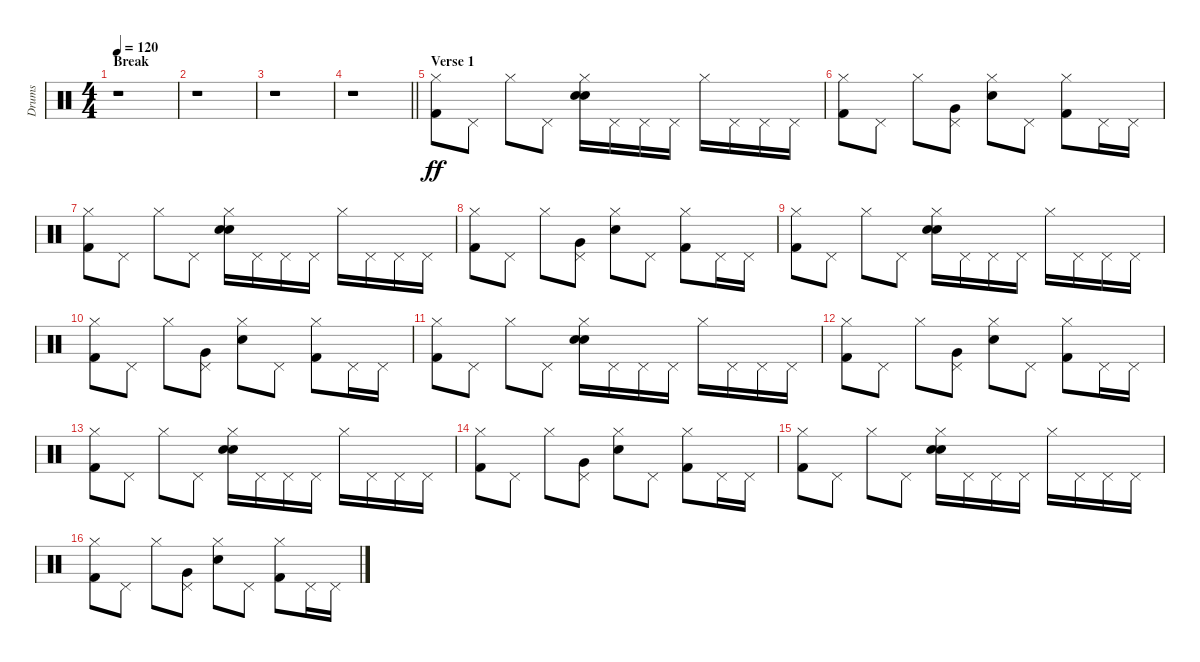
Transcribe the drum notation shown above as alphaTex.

\track ("Drums" "Drums") {instrument percussion}
\staff {score}
\articulation defaults
\ts (4 4)
\section ("" "Break")
\tempo 120
\clef neutral
\ks c
r.1{dy ff} |
r.1 |
r.1 |
\barLineRight lightlight
r.1 |
\section ("" "Verse 1")
("Kick (hit) 2" "Hi-Hat (closed)").8 "Pedal Hi-Hat (hit)".8 "Hi-Hat (closed)".8 "Pedal Hi-Hat (hit)".8 ("Electric Snare (hit)" "Electric Snare (hit)" "Hi-Hat (closed)").16 "Pedal Hi-Hat (hit)".16 "Pedal Hi-Hat (hit)".16 "Pedal Hi-Hat (hit)".16 "Hi-Hat (closed)".16 "Pedal Hi-Hat (hit)".16 "Pedal Hi-Hat (hit)".16 "Pedal Hi-Hat (hit)".16 |
("Kick (hit) 2" "Hi-Hat (closed)").8 "Pedal Hi-Hat (hit)".8 "Hi-Hat (closed)".8 ("Very Low Tom (hit)" "Pedal Hi-Hat (hit)").8 ("Electric Snare (hit)" "Hi-Hat (closed)").8 "Pedal Hi-Hat (hit)".8 ("Kick (hit) 2" "Hi-Hat (closed)").8 "Pedal Hi-Hat (hit)".16 "Pedal Hi-Hat (hit)".16 |
("Kick (hit) 2" "Hi-Hat (closed)").8 "Pedal Hi-Hat (hit)".8 "Hi-Hat (closed)".8 "Pedal Hi-Hat (hit)".8 ("Electric Snare (hit)" "Electric Snare (hit)" "Hi-Hat (closed)").16 "Pedal Hi-Hat (hit)".16 "Pedal Hi-Hat (hit)".16 "Pedal Hi-Hat (hit)".16 "Hi-Hat (closed)".16 "Pedal Hi-Hat (hit)".16 "Pedal Hi-Hat (hit)".16 "Pedal Hi-Hat (hit)".16 |
("Kick (hit) 2" "Hi-Hat (closed)").8 "Pedal Hi-Hat (hit)".8 "Hi-Hat (closed)".8 ("Very Low Tom (hit)" "Pedal Hi-Hat (hit)").8 ("Electric Snare (hit)" "Hi-Hat (closed)").8 "Pedal Hi-Hat (hit)".8 ("Kick (hit) 2" "Hi-Hat (closed)").8 "Pedal Hi-Hat (hit)".16 "Pedal Hi-Hat (hit)".16 |
("Kick (hit) 2" "Hi-Hat (closed)").8 "Pedal Hi-Hat (hit)".8 "Hi-Hat (closed)".8 "Pedal Hi-Hat (hit)".8 ("Electric Snare (hit)" "Electric Snare (hit)" "Hi-Hat (closed)").16 "Pedal Hi-Hat (hit)".16 "Pedal Hi-Hat (hit)".16 "Pedal Hi-Hat (hit)".16 "Hi-Hat (closed)".16 "Pedal Hi-Hat (hit)".16 "Pedal Hi-Hat (hit)".16 "Pedal Hi-Hat (hit)".16 |
("Kick (hit) 2" "Hi-Hat (closed)").8 "Pedal Hi-Hat (hit)".8 "Hi-Hat (closed)".8 ("Very Low Tom (hit)" "Pedal Hi-Hat (hit)").8 ("Electric Snare (hit)" "Hi-Hat (closed)").8 "Pedal Hi-Hat (hit)".8 ("Kick (hit) 2" "Hi-Hat (closed)").8 "Pedal Hi-Hat (hit)".16 "Pedal Hi-Hat (hit)".16 |
("Kick (hit) 2" "Hi-Hat (closed)").8 "Pedal Hi-Hat (hit)".8 "Hi-Hat (closed)".8 "Pedal Hi-Hat (hit)".8 ("Electric Snare (hit)" "Electric Snare (hit)" "Hi-Hat (closed)").16 "Pedal Hi-Hat (hit)".16 "Pedal Hi-Hat (hit)".16 "Pedal Hi-Hat (hit)".16 "Hi-Hat (closed)".16 "Pedal Hi-Hat (hit)".16 "Pedal Hi-Hat (hit)".16 "Pedal Hi-Hat (hit)".16 |
("Kick (hit) 2" "Hi-Hat (closed)").8 "Pedal Hi-Hat (hit)".8 "Hi-Hat (closed)".8 ("Very Low Tom (hit)" "Pedal Hi-Hat (hit)").8 ("Electric Snare (hit)" "Hi-Hat (closed)").8 "Pedal Hi-Hat (hit)".8 ("Kick (hit) 2" "Hi-Hat (closed)").8 "Pedal Hi-Hat (hit)".16 "Pedal Hi-Hat (hit)".16 |
("Kick (hit) 2" "Hi-Hat (closed)").8 "Pedal Hi-Hat (hit)".8 "Hi-Hat (closed)".8 "Pedal Hi-Hat (hit)".8 ("Electric Snare (hit)" "Electric Snare (hit)" "Hi-Hat (closed)").16 "Pedal Hi-Hat (hit)".16 "Pedal Hi-Hat (hit)".16 "Pedal Hi-Hat (hit)".16 "Hi-Hat (closed)".16 "Pedal Hi-Hat (hit)".16 "Pedal Hi-Hat (hit)".16 "Pedal Hi-Hat (hit)".16 |
("Kick (hit) 2" "Hi-Hat (closed)").8 "Pedal Hi-Hat (hit)".8 "Hi-Hat (closed)".8 ("Very Low Tom (hit)" "Pedal Hi-Hat (hit)").8 ("Electric Snare (hit)" "Hi-Hat (closed)").8 "Pedal Hi-Hat (hit)".8 ("Kick (hit) 2" "Hi-Hat (closed)").8 "Pedal Hi-Hat (hit)".16 "Pedal Hi-Hat (hit)".16 |
("Kick (hit) 2" "Hi-Hat (closed)").8 "Pedal Hi-Hat (hit)".8 "Hi-Hat (closed)".8 "Pedal Hi-Hat (hit)".8 ("Electric Snare (hit)" "Electric Snare (hit)" "Hi-Hat (closed)").16 "Pedal Hi-Hat (hit)".16 "Pedal Hi-Hat (hit)".16 "Pedal Hi-Hat (hit)".16 "Hi-Hat (closed)".16 "Pedal Hi-Hat (hit)".16 "Pedal Hi-Hat (hit)".16 "Pedal Hi-Hat (hit)".16 |
("Kick (hit) 2" "Hi-Hat (closed)").8 "Pedal Hi-Hat (hit)".8 "Hi-Hat (closed)".8 ("Very Low Tom (hit)" "Pedal Hi-Hat (hit)").8 ("Electric Snare (hit)" "Hi-Hat (closed)").8 "Pedal Hi-Hat (hit)".8 ("Kick (hit) 2" "Hi-Hat (closed)").8 "Pedal Hi-Hat (hit)".16 "Pedal Hi-Hat (hit)".16
